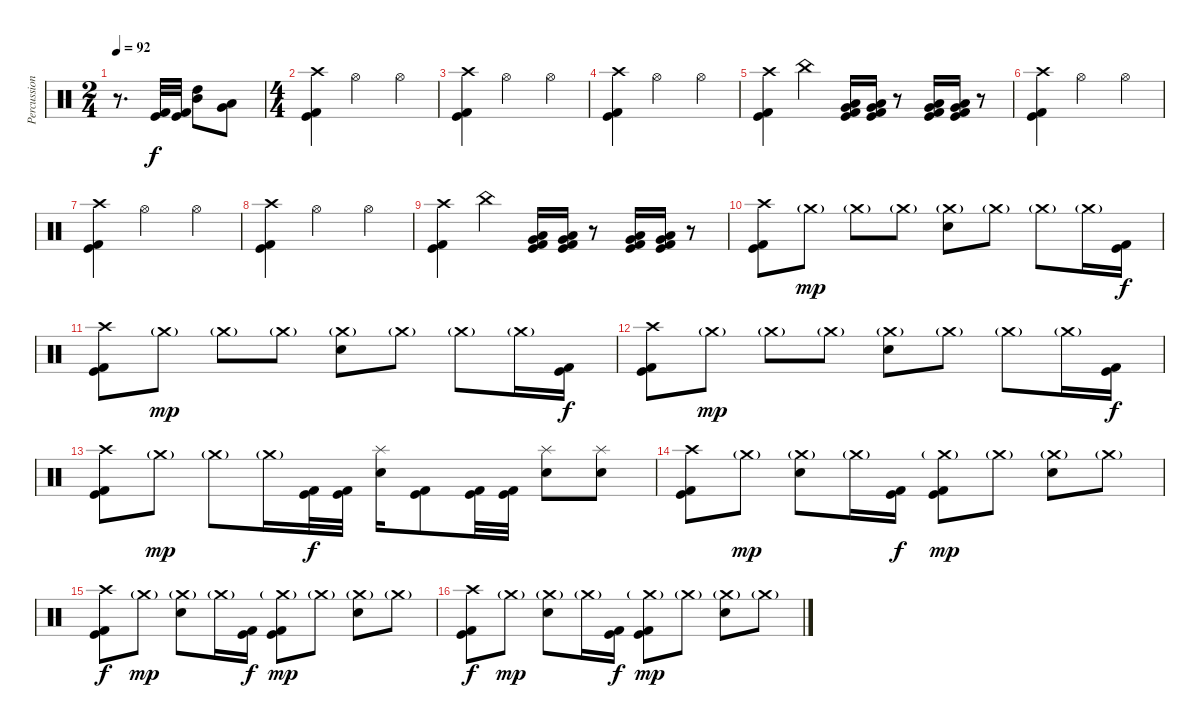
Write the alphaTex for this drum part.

\track ("Percussion" "Percussion") {instrument percussion}
\staff {score}
\articulation defaults
\ts (2 4)
\tempo 92
\clef neutral
\ks c
r.8{d dy f} ("Kick (hit) 2" "Kick (hit)").32 ("Kick (hit) 2" "Kick (hit)").32 ("High Tom (hit)" "Mid Tom (hit)").8 ("Low Tom (hit)" "Very Low Tom (hit)").8 |
\ts (4 4)
("Kick (hit) 2" "Kick (hit)" "Crash high (hit)").4 "Hi-Hat (open)".2 "Hi-Hat (open)".4 |
("Kick (hit) 2" "Kick (hit)" "Crash high (hit)").4 "Hi-Hat (open)".2 "Hi-Hat (open)".4 |
("Kick (hit) 2" "Kick (hit)" "Crash high (hit)").4 "Hi-Hat (open)".2 "Hi-Hat (open)".4 |
("Kick (hit) 2" "Kick (hit)" "Crash high (hit)").4 "China (hit)".4 ("Kick (hit) 2" "Kick (hit)" "Low Tom (hit)" "Very Low Tom (hit)").16 ("Kick (hit) 2" "Kick (hit)" "Low Tom (hit)" "Very Low Tom (hit)").16 r.8 ("Kick (hit) 2" "Kick (hit)" "Low Tom (hit)" "Very Low Tom (hit)").16 ("Kick (hit) 2" "Kick (hit)" "Low Tom (hit)" "Very Low Tom (hit)").16 r.8 |
("Kick (hit) 2" "Kick (hit)" "Crash high (hit)").4 "Hi-Hat (open)".2 "Hi-Hat (open)".4 |
("Kick (hit) 2" "Kick (hit)" "Crash high (hit)").4 "Hi-Hat (open)".2 "Hi-Hat (open)".4 |
("Kick (hit) 2" "Kick (hit)" "Crash high (hit)").4 "Hi-Hat (open)".2 "Hi-Hat (open)".4 |
("Kick (hit) 2" "Kick (hit)" "Crash high (hit)").4 "China (hit)".4 ("Kick (hit) 2" "Kick (hit)" "Low Tom (hit)" "Very Low Tom (hit)").16 ("Kick (hit) 2" "Kick (hit)" "Low Tom (hit)" "Very Low Tom (hit)").16 r.8 ("Kick (hit) 2" "Kick (hit)" "Low Tom (hit)" "Very Low Tom (hit)").16 ("Kick (hit) 2" "Kick (hit)" "Low Tom (hit)" "Very Low Tom (hit)").16 r.8 |
("Kick (hit) 2" "Kick (hit)" "Crash high (hit)").8 "Crash medium (hit)"{g}.8{dy mp} "Crash medium (hit)"{g}.8 "Crash medium (hit)"{g}.8 ("Electric Snare (hit)" "Crash medium (hit)"{g}).8 "Crash medium (hit)"{g}.8 "Crash medium (hit)"{g}.8 "Crash medium (hit)"{g}.16 ("Kick (hit) 2" "Kick (hit)").16{dy f} |
("Kick (hit) 2" "Kick (hit)" "Crash high (hit)").8 "Crash medium (hit)"{g}.8{dy mp} "Crash medium (hit)"{g}.8 "Crash medium (hit)"{g}.8 ("Electric Snare (hit)" "Crash medium (hit)"{g}).8 "Crash medium (hit)"{g}.8 "Crash medium (hit)"{g}.8 "Crash medium (hit)"{g}.16 ("Kick (hit) 2" "Kick (hit)").16{dy f} |
("Kick (hit) 2" "Kick (hit)" "Crash high (hit)").8 "Crash medium (hit)"{g}.8{dy mp} "Crash medium (hit)"{g}.8 "Crash medium (hit)"{g}.8 ("Electric Snare (hit)" "Crash medium (hit)"{g}).8 "Crash medium (hit)"{g}.8 "Crash medium (hit)"{g}.8 "Crash medium (hit)"{g}.16 ("Kick (hit) 2" "Kick (hit)").16{dy f} |
("Kick (hit) 2" "Kick (hit)" "Crash high (hit)").8 "Crash medium (hit)"{g}.8{dy mp} "Crash medium (hit)"{g}.8 "Crash medium (hit)"{g}.16 ("Kick (hit) 2" "Kick (hit)").32{dy f} ("Kick (hit) 2" "Kick (hit)").32 ("Electric Snare (hit)" "Splash (hit)").16 ("Kick (hit) 2" "Kick (hit)").8 ("Kick (hit) 2" "Kick (hit)").32 ("Kick (hit) 2" "Kick (hit)").32 ("Electric Snare (hit)" "Splash (hit)").8 ("Electric Snare (hit)" "Splash (hit)").8 |
("Kick (hit) 2" "Kick (hit)" "Crash high (hit)").8 "Crash medium (hit)"{g}.8{dy mp} ("Electric Snare (hit)" "Crash medium (hit)"{g}).8 "Crash medium (hit)"{g}.16 ("Kick (hit) 2" "Kick (hit)").16{dy f} ("Kick (hit) 2" "Kick (hit)" "Crash medium (hit)"{g}).8{dy mp} "Crash medium (hit)"{g}.8 ("Electric Snare (hit)" "Crash medium (hit)"{g}).8 "Crash medium (hit)"{g}.8 |
("Kick (hit) 2" "Kick (hit)" "Crash high (hit)").8{dy f} "Crash medium (hit)"{g}.8{dy mp} ("Electric Snare (hit)" "Crash medium (hit)"{g}).8 "Crash medium (hit)"{g}.16 ("Kick (hit) 2" "Kick (hit)").16{dy f} ("Kick (hit) 2" "Kick (hit)" "Crash medium (hit)"{g}).8{dy mp} "Crash medium (hit)"{g}.8 ("Electric Snare (hit)" "Crash medium (hit)"{g}).8 "Crash medium (hit)"{g}.8 |
("Kick (hit) 2" "Kick (hit)" "Crash high (hit)").8{dy f} "Crash medium (hit)"{g}.8{dy mp} ("Electric Snare (hit)" "Crash medium (hit)"{g}).8 "Crash medium (hit)"{g}.16 ("Kick (hit) 2" "Kick (hit)").16{dy f} ("Kick (hit) 2" "Kick (hit)" "Crash medium (hit)"{g}).8{dy mp} "Crash medium (hit)"{g}.8 ("Electric Snare (hit)" "Crash medium (hit)"{g}).8 "Crash medium (hit)"{g}.8
